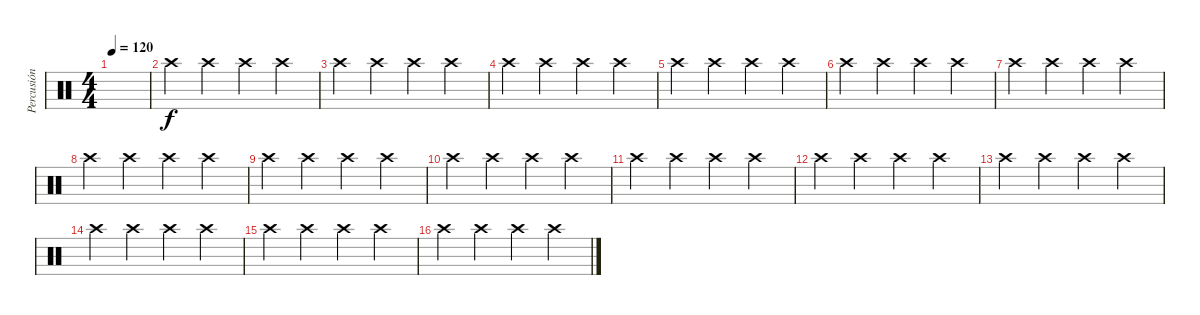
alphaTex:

\track ("Percusión" "Percusión") {instrument percussion}
\staff {score}
\articulation defaults
\ts (4 4)
\tempo 120
\clef neutral
\ks c
|
"Crash high (hit)".4 "Crash high (hit)".4 "Crash high (hit)".4 "Crash high (hit)".4 |
"Crash high (hit)".4 "Crash high (hit)".4 "Crash high (hit)".4 "Crash high (hit)".4 |
"Crash high (hit)".4 "Crash high (hit)".4 "Crash high (hit)".4 "Crash high (hit)".4 |
"Crash high (hit)".4 "Crash high (hit)".4 "Crash high (hit)".4 "Crash high (hit)".4 |
"Crash high (hit)".4 "Crash high (hit)".4 "Crash high (hit)".4 "Crash high (hit)".4 |
"Crash high (hit)".4 "Crash high (hit)".4 "Crash high (hit)".4 "Crash high (hit)".4 |
"Crash high (hit)".4 "Crash high (hit)".4 "Crash high (hit)".4 "Crash high (hit)".4 |
"Crash high (hit)".4 "Crash high (hit)".4 "Crash high (hit)".4 "Crash high (hit)".4 |
"Crash high (hit)".4 "Crash high (hit)".4 "Crash high (hit)".4 "Crash high (hit)".4 |
"Crash high (hit)".4 "Crash high (hit)".4 "Crash high (hit)".4 "Crash high (hit)".4 |
"Crash high (hit)".4 "Crash high (hit)".4 "Crash high (hit)".4 "Crash high (hit)".4 |
"Crash high (hit)".4 "Crash high (hit)".4 "Crash high (hit)".4 "Crash high (hit)".4 |
"Crash high (hit)".4 "Crash high (hit)".4 "Crash high (hit)".4 "Crash high (hit)".4 |
"Crash high (hit)".4 "Crash high (hit)".4 "Crash high (hit)".4 "Crash high (hit)".4 |
"Crash high (hit)".4 "Crash high (hit)".4 "Crash high (hit)".4 "Crash high (hit)".4
